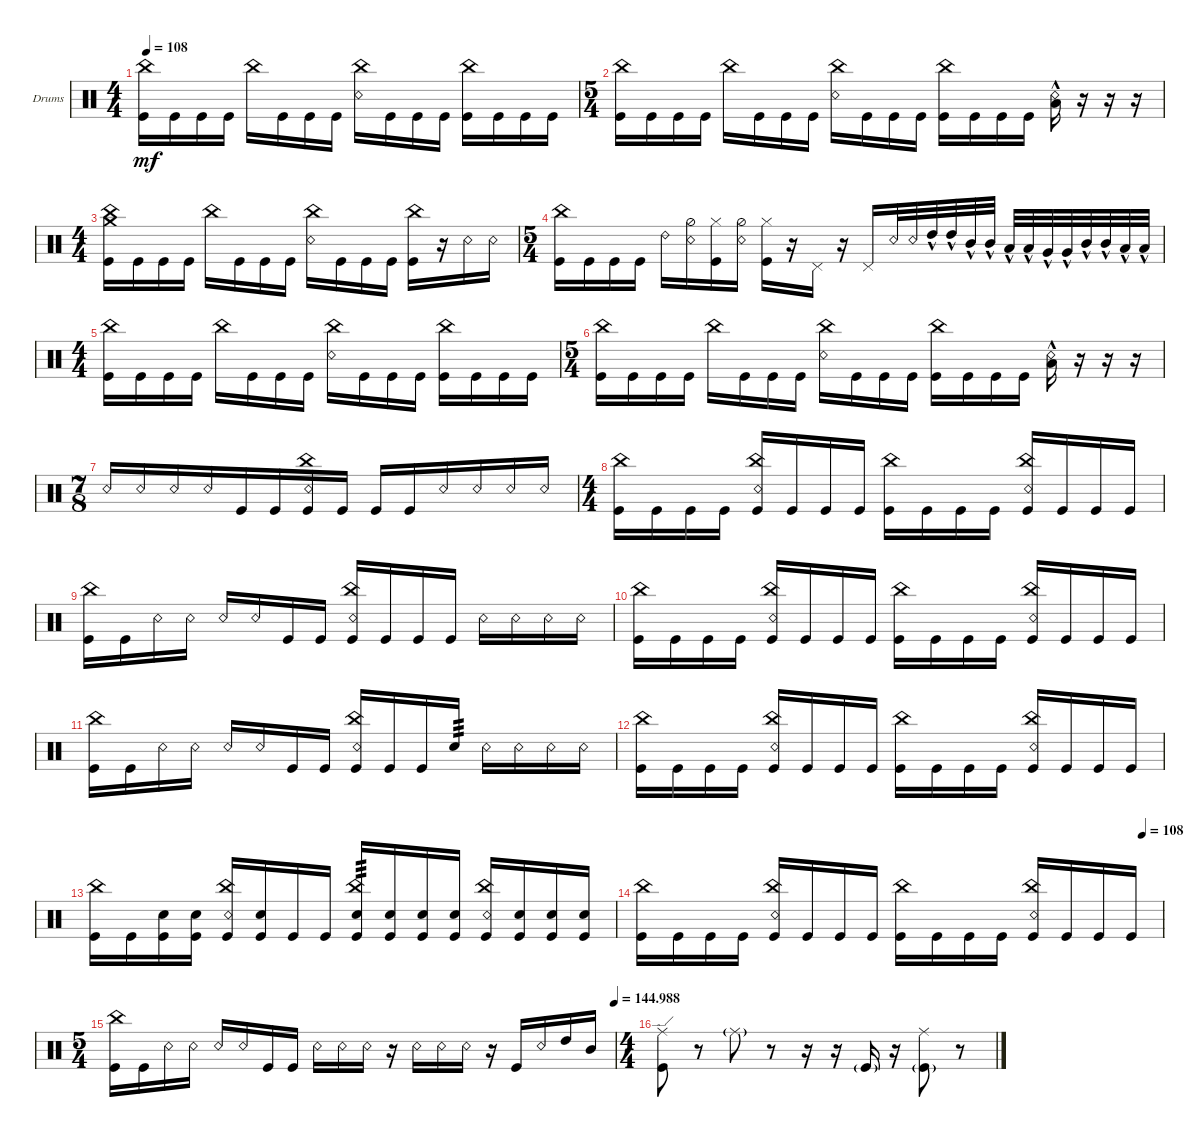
\defaultSystemsLayout 4
\bracketExtendMode groupsimilarinstruments
\firstSystemTrackNameOrientation horizontal
\otherSystemsTrackNameOrientation horizontal
\track ("Drumkit" "Drums") {instrument percussion}
\staff {score}
\articulation defaults
\ts (4 4)
\tempo 108
\clef neutral
\ks c
("Kick (hit)" "China (hit)").16{dy mf} "Kick (hit)".16 "Kick (hit)".16 "Kick (hit)".16 "China (hit)".16 "Kick (hit)".16 "Kick (hit)".16 "Kick (hit)".16 ("Snare (rim shot)" "China (hit)").16 "Kick (hit)".16 "Kick (hit)".16 "Kick (hit)".16 ("Kick (hit)" "China (hit)").16 "Kick (hit)".16 "Kick (hit)".16 "Kick (hit)".16 |
\ts (5 4)
("Kick (hit)" "China (hit)").16 "Kick (hit)".16 "Kick (hit)".16 "Kick (hit)".16 "China (hit)".16 "Kick (hit)".16 "Kick (hit)".16 "Kick (hit)".16 ("Snare (rim shot)" "China (hit)").16 "Kick (hit)".16 "Kick (hit)".16 "Kick (hit)".16 ("Kick (hit)" "China (hit)").16 "Kick (hit)".16 "Kick (hit)".16 "Kick (hit)".16 ("Snare (rim shot)"{hac} "Low Tom (hit)"{hac}).16 r.16 r.16 r.16 |
\ts (4 4)
("Kick (hit)" "China (hit)" "Crash medium (hit)").16 "Kick (hit)".16 "Kick (hit)".16 "Kick (hit)".16 "China (hit)".16 "Kick (hit)".16 "Kick (hit)".16 "Kick (hit)".16 ("Snare (rim shot)" "China (hit)").16 "Kick (hit)".16 "Kick (hit)".16 "Kick (hit)".16 ("Kick (hit)" "China (hit)").16 r.16 "Snare (rim shot)".16 "Snare (rim shot)".16 |
\ts (5 4)
("Kick (hit)" "China (hit)").16 "Kick (hit)".16 "Kick (hit)".16 "Kick (hit)".16 "Ride (bell) 2".16 ("Snare (rim shot)" "Hi-Hat (half)").16 ("Hi-Hat (closed)" "Kick (hit)").16 ("Snare (rim shot)" "Hi-Hat (half)").16 ("Hi-Hat (closed)" "Kick (hit)").16 r.16 "Pedal Hi-Hat (hit)".16 r.16 "Pedal Hi-Hat (hit)".16 "Snare (rim shot)".32 "Snare (rim shot)".32 "High Tom (hit)"{hac}.32 "High Tom (hit)"{hac}.32 "Mid Tom (hit)"{hac}.32 "Mid Tom (hit)"{hac}.32 "Low Tom (hit)"{hac}.32 "Low Tom (hit)"{hac}.32 "Very Low Tom (hit)"{hac}.32 "Very Low Tom (hit)"{hac}.32 "Mid Tom (hit)"{hac}.32 "Mid Tom (hit)"{hac}.32 "Low Tom (hit)"{hac}.32 "Low Tom (hit)"{hac}.32 |
\ts (4 4)
("Kick (hit)" "China (hit)").16 "Kick (hit)".16 "Kick (hit)".16 "Kick (hit)".16 "China (hit)".16 "Kick (hit)".16 "Kick (hit)".16 "Kick (hit)".16 ("Snare (rim shot)" "China (hit)").16 "Kick (hit)".16 "Kick (hit)".16 "Kick (hit)".16 ("Kick (hit)" "China (hit)").16 "Kick (hit)".16 "Kick (hit)".16 "Kick (hit)".16 |
\ts (5 4)
("Kick (hit)" "China (hit)").16 "Kick (hit)".16 "Kick (hit)".16 "Kick (hit)".16 "China (hit)".16 "Kick (hit)".16 "Kick (hit)".16 "Kick (hit)".16 ("Snare (rim shot)" "China (hit)").16 "Kick (hit)".16 "Kick (hit)".16 "Kick (hit)".16 ("Kick (hit)" "China (hit)").16 "Kick (hit)".16 "Kick (hit)".16 "Kick (hit)".16 ("Snare (rim shot)"{hac} "Low Tom (hit)"{hac}).16 r.16 r.16 r.16 |
\ts (7 8)
"Snare (rim shot)".16 "Snare (rim shot)".16 "Snare (rim shot)".16 "Snare (rim shot)".16 "Kick (hit)".16 "Kick (hit)".16 ("Kick (hit)" "Snare (rim shot)" "China (hit)").16 "Kick (hit)".16 "Kick (hit)".16 "Kick (hit)".16 "Snare (rim shot)".16 "Snare (rim shot)".16 "Snare (rim shot)".16 "Snare (rim shot)".16 |
\ts (4 4)
("Kick (hit)" "China (hit)").16 "Kick (hit)".16 "Kick (hit)".16 "Kick (hit)".16 ("Kick (hit)" "China (hit)" "Snare (rim shot)").16 "Kick (hit)".16 "Kick (hit)".16 "Kick (hit)".16 ("Kick (hit)" "China (hit)").16 "Kick (hit)".16 "Kick (hit)".16 "Kick (hit)".16 ("Kick (hit)" "China (hit)" "Snare (rim shot)").16 "Kick (hit)".16 "Kick (hit)".16 "Kick (hit)".16 |
("Kick (hit)" "China (hit)").16 "Kick (hit)".16 "Snare (rim shot)".16 "Snare (rim shot)".16 "Snare (rim shot)".16 "Snare (rim shot)".16 "Kick (hit)".16 "Kick (hit)".16 ("Kick (hit)" "Snare (rim shot)" "China (hit)").16 "Kick (hit)".16 "Kick (hit)".16 "Kick (hit)".16 "Snare (rim shot)".16 "Snare (rim shot)".16 "Snare (rim shot)".16 "Snare (rim shot)".16 |
("Kick (hit)" "China (hit)").16 "Kick (hit)".16 "Kick (hit)".16 "Kick (hit)".16 ("Kick (hit)" "China (hit)" "Snare (rim shot)").16 "Kick (hit)".16 "Kick (hit)".16 "Kick (hit)".16 ("Kick (hit)" "China (hit)").16 "Kick (hit)".16 "Kick (hit)".16 "Kick (hit)".16 ("Kick (hit)" "China (hit)" "Snare (rim shot)").16 "Kick (hit)".16 "Kick (hit)".16 "Kick (hit)".16 |
("Kick (hit)" "China (hit)").16 "Kick (hit)".16 "Snare (rim shot)".16 "Snare (rim shot)".16 "Snare (rim shot)".16 "Snare (rim shot)".16 "Kick (hit)".16 "Kick (hit)".16 ("Kick (hit)" "Snare (rim shot)" "China (hit)").16 "Kick (hit)".16 "Kick (hit)".16 "Snare (hit) 2".16{tp 3} "Snare (rim shot)".16 "Snare (rim shot)".16 "Snare (rim shot)".16 "Snare (rim shot)".16 |
("Kick (hit)" "China (hit)").16 "Kick (hit)".16 "Kick (hit)".16 "Kick (hit)".16 ("Kick (hit)" "China (hit)" "Snare (rim shot)").16 "Kick (hit)".16 "Kick (hit)".16 "Kick (hit)".16 ("Kick (hit)" "China (hit)").16 "Kick (hit)".16 "Kick (hit)".16 "Kick (hit)".16 ("Kick (hit)" "China (hit)" "Snare (rim shot)").16 "Kick (hit)".16 "Kick (hit)".16 "Kick (hit)".16 |
("Kick (hit)" "China (hit)").16 "Kick (hit)".16 ("Kick (hit)" "Snare (hit) 2").16 ("Kick (hit)" "Snare (hit) 2").16 ("Snare (rim shot)" "China (hit)" "Kick (hit)").16 ("Kick (hit)" "Snare (hit) 2").16 "Kick (hit)".16 "Kick (hit)".16 ("Kick (hit)" "China (hit)" "Snare (hit) 2").16{tp 3} ("Kick (hit)" "Snare (hit) 2").16 ("Kick (hit)" "Snare (hit) 2").16 ("Kick (hit)" "Snare (hit) 2").16 ("Snare (rim shot)" "Kick (hit)" "China (hit)").16 ("Kick (hit)" "Snare (hit) 2").16 ("Kick (hit)" "Snare (hit) 2").16 ("Kick (hit)" "Snare (hit) 2").16 |
\tempo (108 0.9625)
("Kick (hit)" "China (hit)").16 "Kick (hit)".16 "Kick (hit)".16 "Kick (hit)".16 ("Kick (hit)" "China (hit)" "Snare (rim shot)").16 "Kick (hit)".16 "Kick (hit)".16 "Kick (hit)".16 ("Kick (hit)" "China (hit)").16 "Kick (hit)".16 "Kick (hit)".16 "Kick (hit)".16 ("Kick (hit)" "China (hit)" "Snare (rim shot)").16 "Kick (hit)".16 "Kick (hit)".16 "Kick (hit)".16 |
\ts (5 4)
\tempo (144.988 1)
("Kick (hit)" "China (hit)").16 "Kick (hit)".16 "Snare (rim shot)".16 "Snare (rim shot)".16 "Snare (rim shot)".16 "Snare (rim shot)".16 "Kick (hit)".16 "Kick (hit)".16 "Snare (rim shot)".16 "Snare (rim shot)".16 "Snare (rim shot)".16 r.16 "Snare (rim shot)".16 "Snare (rim shot)".16 "Snare (rim shot)".16 r.16 "Kick (hit)".16 "Snare (rim shot)".16 "High Tom (hit)".16 "Mid Tom (hit)".16 |
\ts (4 4)
("Kick (hit)" "Ride (edge)").8 r.8 "Ride (middle)"{g}.8 r.8 r.16 r.16 "Kick (hit)"{g}.16 r.16 ("Ride (middle)" "Kick (hit)"{g}).8 r.8
